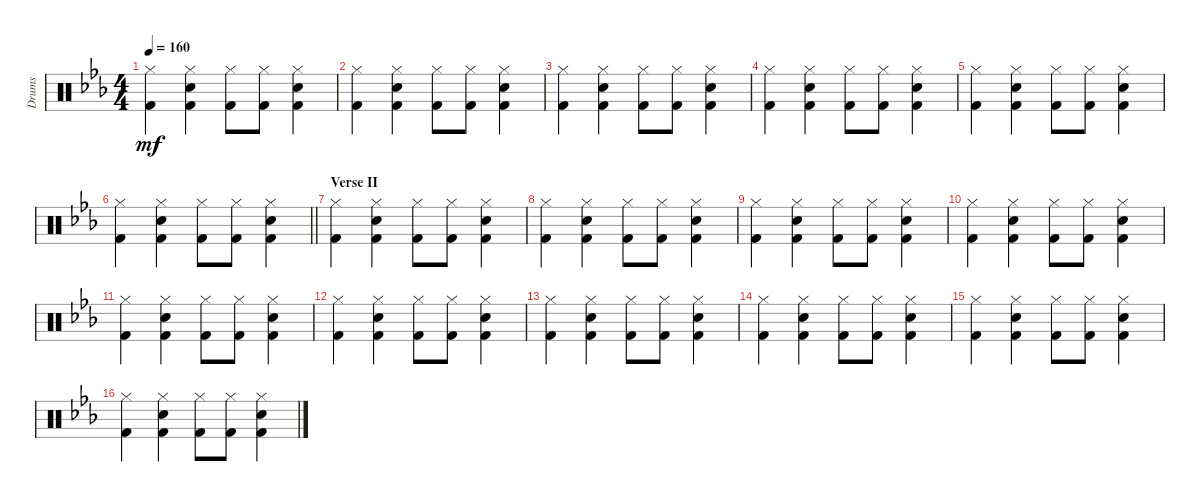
\track ("Drums" "Drums") {instrument percussion}
\staff {score}
\articulation defaults
\ts (4 4)
\tempo 160
\clef neutral
\ks eb
("Hi-Hat (closed)" "Kick (hit) 2").4{dy mf} ("Hi-Hat (closed)" "Electric Snare (hit)" "Kick (hit) 2").4 ("Hi-Hat (closed)" "Kick (hit) 2").8 ("Hi-Hat (closed)" "Kick (hit) 2").8 ("Hi-Hat (closed)" "Electric Snare (hit)" "Kick (hit) 2").4 |
("Hi-Hat (closed)" "Kick (hit) 2").4 ("Hi-Hat (closed)" "Electric Snare (hit)" "Kick (hit) 2").4 ("Hi-Hat (closed)" "Kick (hit) 2").8 ("Hi-Hat (closed)" "Kick (hit) 2").8 ("Hi-Hat (closed)" "Electric Snare (hit)" "Kick (hit) 2").4 |
("Hi-Hat (closed)" "Kick (hit) 2").4 ("Hi-Hat (closed)" "Electric Snare (hit)" "Kick (hit) 2").4 ("Hi-Hat (closed)" "Kick (hit) 2").8 ("Hi-Hat (closed)" "Kick (hit) 2").8 ("Hi-Hat (closed)" "Electric Snare (hit)" "Kick (hit) 2").4 |
("Hi-Hat (closed)" "Kick (hit) 2").4 ("Hi-Hat (closed)" "Electric Snare (hit)" "Kick (hit) 2").4 ("Hi-Hat (closed)" "Kick (hit) 2").8 ("Hi-Hat (closed)" "Kick (hit) 2").8 ("Hi-Hat (closed)" "Electric Snare (hit)" "Kick (hit) 2").4 |
("Hi-Hat (closed)" "Kick (hit) 2").4 ("Hi-Hat (closed)" "Electric Snare (hit)" "Kick (hit) 2").4 ("Hi-Hat (closed)" "Kick (hit) 2").8 ("Hi-Hat (closed)" "Kick (hit) 2").8 ("Hi-Hat (closed)" "Electric Snare (hit)" "Kick (hit) 2").4 |
\barLineRight lightlight
("Hi-Hat (closed)" "Kick (hit) 2").4 ("Hi-Hat (closed)" "Electric Snare (hit)" "Kick (hit) 2").4 ("Hi-Hat (closed)" "Kick (hit) 2").8 ("Hi-Hat (closed)" "Kick (hit) 2").8 ("Hi-Hat (closed)" "Electric Snare (hit)" "Kick (hit) 2").4 |
\section ("" "Verse II")
("Hi-Hat (closed)" "Kick (hit) 2").4 ("Hi-Hat (closed)" "Electric Snare (hit)" "Kick (hit) 2").4 ("Hi-Hat (closed)" "Kick (hit) 2").8 ("Hi-Hat (closed)" "Kick (hit) 2").8 ("Hi-Hat (closed)" "Electric Snare (hit)" "Kick (hit) 2").4 |
("Hi-Hat (closed)" "Kick (hit) 2").4 ("Hi-Hat (closed)" "Electric Snare (hit)" "Kick (hit) 2").4 ("Hi-Hat (closed)" "Kick (hit) 2").8 ("Hi-Hat (closed)" "Kick (hit) 2").8 ("Hi-Hat (closed)" "Electric Snare (hit)" "Kick (hit) 2").4 |
("Hi-Hat (closed)" "Kick (hit) 2").4 ("Hi-Hat (closed)" "Electric Snare (hit)" "Kick (hit) 2").4 ("Hi-Hat (closed)" "Kick (hit) 2").8 ("Hi-Hat (closed)" "Kick (hit) 2").8 ("Hi-Hat (closed)" "Electric Snare (hit)" "Kick (hit) 2").4 |
("Hi-Hat (closed)" "Kick (hit) 2").4 ("Hi-Hat (closed)" "Electric Snare (hit)" "Kick (hit) 2").4 ("Hi-Hat (closed)" "Kick (hit) 2").8 ("Hi-Hat (closed)" "Kick (hit) 2").8 ("Hi-Hat (closed)" "Electric Snare (hit)" "Kick (hit) 2").4 |
("Hi-Hat (closed)" "Kick (hit) 2").4 ("Hi-Hat (closed)" "Electric Snare (hit)" "Kick (hit) 2").4 ("Hi-Hat (closed)" "Kick (hit) 2").8 ("Hi-Hat (closed)" "Kick (hit) 2").8 ("Hi-Hat (closed)" "Electric Snare (hit)" "Kick (hit) 2").4 |
("Hi-Hat (closed)" "Kick (hit) 2").4 ("Hi-Hat (closed)" "Electric Snare (hit)" "Kick (hit) 2").4 ("Hi-Hat (closed)" "Kick (hit) 2").8 ("Hi-Hat (closed)" "Kick (hit) 2").8 ("Hi-Hat (closed)" "Electric Snare (hit)" "Kick (hit) 2").4 |
("Hi-Hat (closed)" "Kick (hit) 2").4 ("Hi-Hat (closed)" "Electric Snare (hit)" "Kick (hit) 2").4 ("Hi-Hat (closed)" "Kick (hit) 2").8 ("Hi-Hat (closed)" "Kick (hit) 2").8 ("Hi-Hat (closed)" "Electric Snare (hit)" "Kick (hit) 2").4 |
("Hi-Hat (closed)" "Kick (hit) 2").4 ("Hi-Hat (closed)" "Electric Snare (hit)" "Kick (hit) 2").4 ("Hi-Hat (closed)" "Kick (hit) 2").8 ("Hi-Hat (closed)" "Kick (hit) 2").8 ("Hi-Hat (closed)" "Electric Snare (hit)" "Kick (hit) 2").4 |
("Hi-Hat (closed)" "Kick (hit) 2").4 ("Hi-Hat (closed)" "Electric Snare (hit)" "Kick (hit) 2").4 ("Hi-Hat (closed)" "Kick (hit) 2").8 ("Hi-Hat (closed)" "Kick (hit) 2").8 ("Hi-Hat (closed)" "Electric Snare (hit)" "Kick (hit) 2").4 |
("Hi-Hat (closed)" "Kick (hit) 2").4 ("Hi-Hat (closed)" "Electric Snare (hit)" "Kick (hit) 2").4 ("Hi-Hat (closed)" "Kick (hit) 2").8 ("Hi-Hat (closed)" "Kick (hit) 2").8 ("Hi-Hat (closed)" "Electric Snare (hit)" "Kick (hit) 2").4
